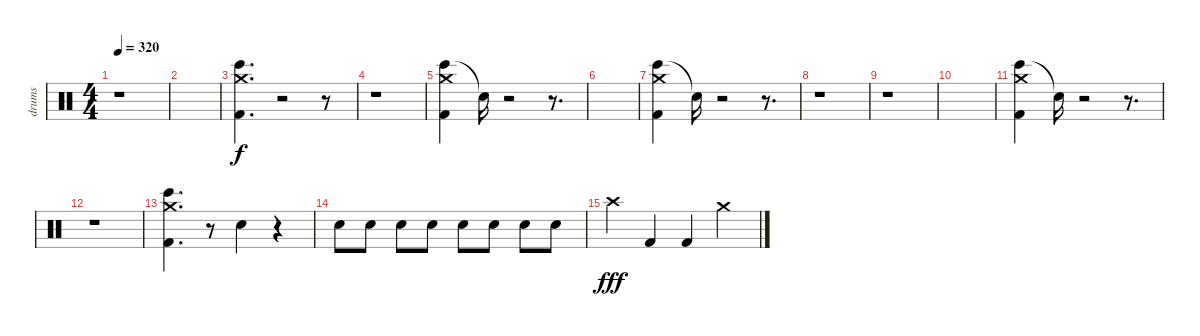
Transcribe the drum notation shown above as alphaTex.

\track ("drums" "drums") {instrument percussion}
\staff {score}
\articulation defaults
\ts (4 4)
\tempo 320
\clef neutral
\ks c
r.1{dy f} |
|
("Bongo High (hit)" "Kick (hit) 2" "Crash medium (hit)").4{d} r.2 r.8 |
r.1 |
("Bongo High (hit)" "Kick (hit) 2" "Crash medium (hit)").4 "Snare (hit)"{t}.16 r.2 r.8{d} |
|
("Bongo High (hit)" "Kick (hit) 2" "Crash medium (hit)").4 "Snare (hit)"{t}.16 r.2 r.8{d} |
r.1 |
r.1 |
|
("Bongo High (hit)" "Kick (hit) 2" "Crash medium (hit)").4 "Snare (hit)"{t}.16 r.2 r.8{d} |
r.1 |
("Bongo High (hit)" "Kick (hit) 2" "Crash medium (hit)").4{d} r.8 "Snare (hit)".4 r.4 |
"Snare (hit) 2".8 "Snare (hit) 2".8 "Snare (hit) 2".8 "Snare (hit) 2".8 "Snare (hit) 2".8 "Snare (hit) 2".8 "Snare (hit) 2".8 "Snare (hit) 2".8 |
"Crash high (hit)".4{dy fff} "Kick (hit) 2".4 "Kick (hit) 2".4 "Crash medium (hit)".4
